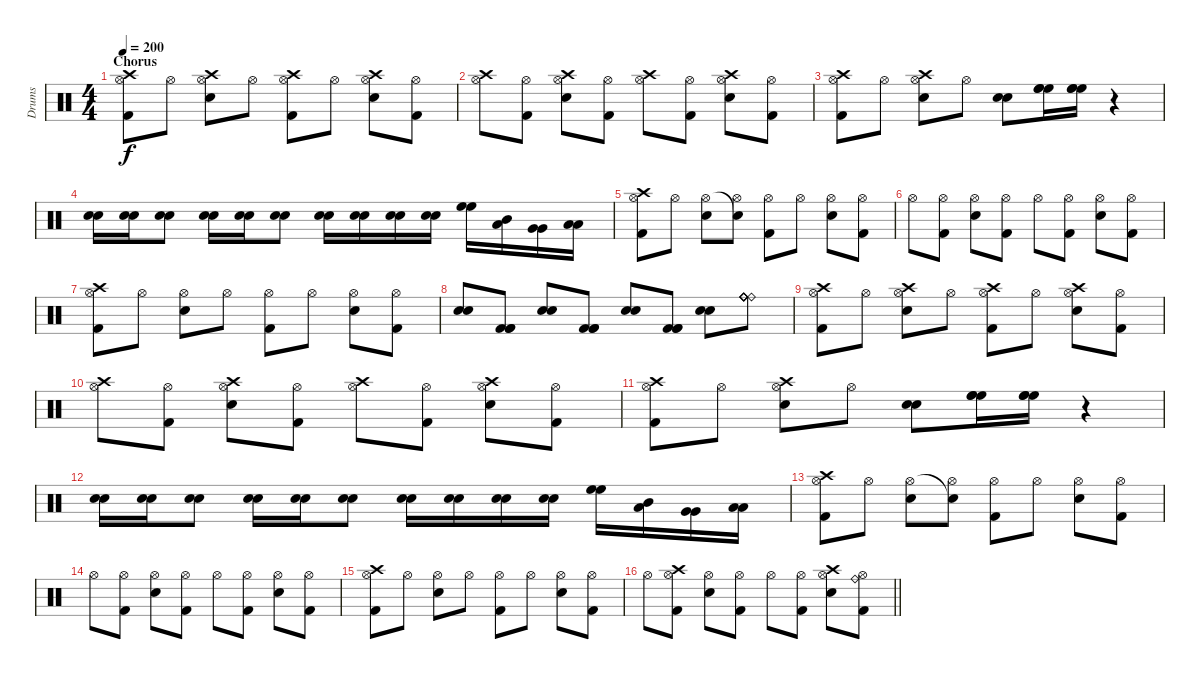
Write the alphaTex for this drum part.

\track ("Drums" "Drums") {instrument percussion}
\staff {score}
\articulation defaults
\ts (4 4)
\section ("" "Chorus")
\tempo 200
\clef neutral
\ks c
("Crash high (hit)" "Hi-Hat (open)" "Kick (hit) 2").8{dy f} "Hi-Hat (open)".8 ("Crash high (hit)" "Hi-Hat (open)" "Electric Snare (hit)").8 "Hi-Hat (open)".8 ("Crash high (hit)" "Hi-Hat (open)" "Kick (hit) 2").8 "Hi-Hat (open)".8 ("Crash high (hit)" "Hi-Hat (open)" "Electric Snare (hit)").8 ("Hi-Hat (open)" "Kick (hit) 2").8 |
("Crash high (hit)" "Hi-Hat (open)").8 ("Hi-Hat (open)" "Kick (hit) 2").8 ("Crash high (hit)" "Hi-Hat (open)" "Electric Snare (hit)").8 ("Hi-Hat (open)" "Kick (hit) 2").8 ("Crash high (hit)" "Hi-Hat (open)").8 ("Hi-Hat (open)" "Kick (hit) 2").8 ("Crash high (hit)" "Hi-Hat (open)" "Electric Snare (hit)").8 ("Hi-Hat (open)" "Kick (hit) 2").8 |
("Crash high (hit)" "Hi-Hat (open)" "Kick (hit) 2").8 "Hi-Hat (open)".8 ("Crash high (hit)" "Hi-Hat (open)" "Electric Snare (hit)").8 "Hi-Hat (open)".8 ("Snare (hit) 2" "Electric Snare (hit)").8 ("High Floor Tom (hit)" "High Floor Tom (hit)" "High Floor Tom (hit)").16 ("High Floor Tom (hit)" "High Floor Tom (hit)" "High Floor Tom (hit)").16 r.4 |
("Snare (hit) 2" "Electric Snare (hit)").16 ("Snare (hit) 2" "Electric Snare (hit)").16 ("Snare (hit) 2" "Electric Snare (hit)").8 ("Snare (hit) 2" "Electric Snare (hit)").16 ("Snare (hit) 2" "Electric Snare (hit)").16 ("Snare (hit) 2" "Electric Snare (hit)").8 ("Snare (hit) 2" "Electric Snare (hit)").16 ("Snare (hit) 2" "Electric Snare (hit)").16 ("Snare (hit) 2" "Electric Snare (hit)").16 ("Snare (hit) 2" "Electric Snare (hit)").16 ("High Floor Tom (hit)" "High Floor Tom (hit)").16 ("Low Tom (hit)" "Mid Tom (hit)").16 ("Very Low Tom (hit)" "Very Low Tom (hit)").16 ("Low Floor Tom (hit)" "Low Floor Tom (hit)").16 |
("Crash high (hit)" "Hi-Hat (open)" "Kick (hit) 2").8 "Hi-Hat (open)".8 ("Hi-Hat (open)" "Electric Snare (hit)").8 ("Snare (hit)"{t} "Hi-Hat (open)").8 ("Hi-Hat (open)" "Kick (hit) 2").8 "Hi-Hat (open)".8 ("Hi-Hat (open)" "Electric Snare (hit)").8 ("Hi-Hat (open)" "Kick (hit) 2").8 |
"Hi-Hat (open)".8 ("Hi-Hat (open)" "Kick (hit) 2").8 ("Hi-Hat (open)" "Electric Snare (hit)").8 ("Hi-Hat (open)" "Kick (hit) 2").8 "Hi-Hat (open)".8 ("Hi-Hat (open)" "Kick (hit) 2").8 ("Hi-Hat (open)" "Electric Snare (hit)").8 ("Hi-Hat (open)" "Kick (hit) 2").8 |
("Crash high (hit)" "Hi-Hat (open)" "Kick (hit) 2").8 "Hi-Hat (open)".8 ("Hi-Hat (open)" "Electric Snare (hit)").8 "Hi-Hat (open)".8 ("Hi-Hat (open)" "Kick (hit) 2").8 "Hi-Hat (open)".8 ("Hi-Hat (open)" "Electric Snare (hit)").8 ("Hi-Hat (open)" "Kick (hit) 2").8 |
("Snare (hit) 2" "Electric Snare (hit)").8 ("Kick (hit) 2" "Kick (hit) 2" "Kick (hit) 2").8 ("Snare (hit) 2" "Electric Snare (hit)").8 ("Kick (hit) 2" "Kick (hit) 2" "Kick (hit) 2").8 ("Snare (hit) 2" "Electric Snare (hit)").8 ("Kick (hit) 2" "Kick (hit) 2" "Kick (hit) 2").8 ("Snare (hit) 2" "Electric Snare (hit)").8 ("Ride (bell)" "Ride (bell)" "Ride (bell)" "Ride (bell)" "Ride (bell)" "Ride (bell)").8 |
("Crash high (hit)" "Hi-Hat (open)" "Kick (hit) 2").8 "Hi-Hat (open)".8 ("Crash high (hit)" "Hi-Hat (open)" "Electric Snare (hit)").8 "Hi-Hat (open)".8 ("Crash high (hit)" "Hi-Hat (open)" "Kick (hit) 2").8 "Hi-Hat (open)".8 ("Crash high (hit)" "Hi-Hat (open)" "Electric Snare (hit)").8 ("Hi-Hat (open)" "Kick (hit) 2").8 |
("Crash high (hit)" "Hi-Hat (open)").8 ("Hi-Hat (open)" "Kick (hit) 2").8 ("Crash high (hit)" "Hi-Hat (open)" "Electric Snare (hit)").8 ("Hi-Hat (open)" "Kick (hit) 2").8 ("Crash high (hit)" "Hi-Hat (open)").8 ("Hi-Hat (open)" "Kick (hit) 2").8 ("Crash high (hit)" "Hi-Hat (open)" "Electric Snare (hit)").8 ("Hi-Hat (open)" "Kick (hit) 2").8 |
("Crash high (hit)" "Hi-Hat (open)" "Kick (hit) 2").8 "Hi-Hat (open)".8 ("Crash high (hit)" "Hi-Hat (open)" "Electric Snare (hit)").8 "Hi-Hat (open)".8 ("Snare (hit) 2" "Electric Snare (hit)").8 ("High Floor Tom (hit)" "High Floor Tom (hit)" "High Floor Tom (hit)").16 ("High Floor Tom (hit)" "High Floor Tom (hit)" "High Floor Tom (hit)").16 r.4 |
("Snare (hit) 2" "Electric Snare (hit)").16 ("Snare (hit) 2" "Electric Snare (hit)").16 ("Snare (hit) 2" "Electric Snare (hit)").8 ("Snare (hit) 2" "Electric Snare (hit)").16 ("Snare (hit) 2" "Electric Snare (hit)").16 ("Snare (hit) 2" "Electric Snare (hit)").8 ("Snare (hit) 2" "Electric Snare (hit)").16 ("Snare (hit) 2" "Electric Snare (hit)").16 ("Snare (hit) 2" "Electric Snare (hit)").16 ("Snare (hit) 2" "Electric Snare (hit)").16 ("High Floor Tom (hit)" "High Floor Tom (hit)").16 ("Low Tom (hit)" "Mid Tom (hit)").16 ("Very Low Tom (hit)" "Very Low Tom (hit)").16 ("Low Floor Tom (hit)" "Low Floor Tom (hit)").16 |
("Crash high (hit)" "Hi-Hat (open)" "Kick (hit) 2").8 "Hi-Hat (open)".8 ("Hi-Hat (open)" "Electric Snare (hit)").8 ("Snare (hit)"{t} "Hi-Hat (open)").8 ("Hi-Hat (open)" "Kick (hit) 2").8 "Hi-Hat (open)".8 ("Hi-Hat (open)" "Electric Snare (hit)").8 ("Hi-Hat (open)" "Kick (hit) 2").8 |
"Hi-Hat (open)".8 ("Hi-Hat (open)" "Kick (hit) 2").8 ("Hi-Hat (open)" "Electric Snare (hit)").8 ("Hi-Hat (open)" "Kick (hit) 2").8 "Hi-Hat (open)".8 ("Hi-Hat (open)" "Kick (hit) 2").8 ("Hi-Hat (open)" "Electric Snare (hit)").8 ("Hi-Hat (open)" "Kick (hit) 2").8 |
("Crash high (hit)" "Hi-Hat (open)" "Kick (hit) 2").8 "Hi-Hat (open)".8 ("Hi-Hat (open)" "Electric Snare (hit)").8 "Hi-Hat (open)".8 ("Hi-Hat (open)" "Kick (hit) 2").8 "Hi-Hat (open)".8 ("Hi-Hat (open)" "Electric Snare (hit)").8 ("Hi-Hat (open)" "Kick (hit) 2").8 |
\barLineRight lightlight "Hi-Hat (open)".8
("Crash high (hit)" "Hi-Hat (open)" "Kick (hit) 2").8 ("Hi-Hat (open)" "Electric Snare (hit)").8 ("Hi-Hat (open)" "Kick (hit) 2").8 "Hi-Hat (open)".8 ("Hi-Hat (open)" "Kick (hit) 2").8 ("Crash high (hit)" "Hi-Hat (open)" "Electric Snare (hit)").8 ("Ride (bell)" "Hi-Hat (open)" "Kick (hit) 2").8
